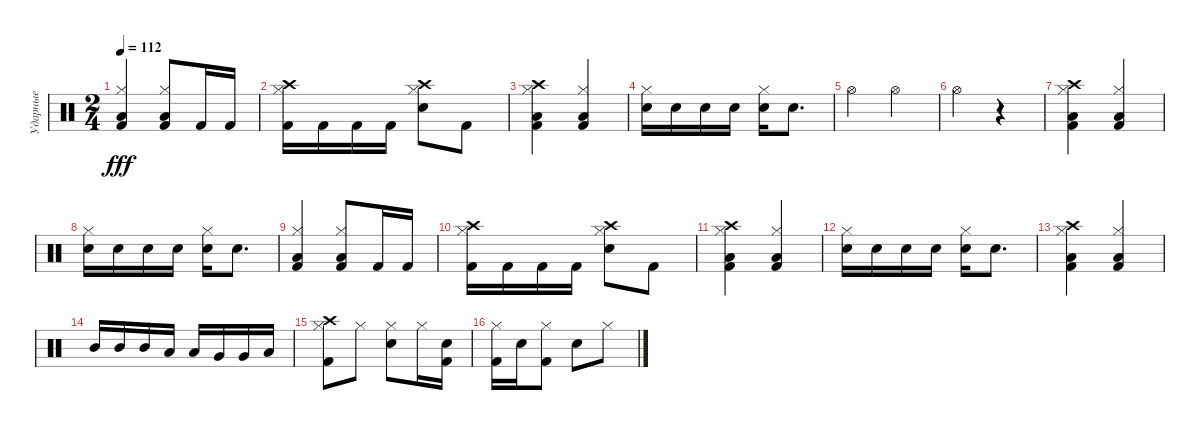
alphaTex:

\track ("Ударные" "Ударные") {instrument percussion}
\staff {score}
\articulation defaults
\ts (2 4)
\tempo 112
\clef neutral
\ks c
("Low Floor Tom (hit)" "Hi-Hat (closed)" "Kick (hit) 2").4{dy fff} ("Low Floor Tom (hit)" "Kick (hit) 2" "Hi-Hat (closed)").8 "Kick (hit) 2".16 "Kick (hit) 2".16 |
("Hi-Hat (closed)" "Crash high (hit)" "Kick (hit) 2").16 "Kick (hit) 2".16 "Kick (hit) 2".16 "Kick (hit) 2".16 ("Electric Snare (hit)" "Hi-Hat (closed)" "Crash high (hit)").8 "Kick (hit) 2".8 |
("Kick (hit) 2" "Hi-Hat (closed)" "Crash high (hit)" "Low Floor Tom (hit)").4 ("Kick (hit) 2" "Low Floor Tom (hit)" "Hi-Hat (closed)").4 |
("Hi-Hat (closed)" "Electric Snare (hit)").16 "Electric Snare (hit)".16 "Electric Snare (hit)".16 "Electric Snare (hit)".16 ("Hi-Hat (closed)" "Electric Snare (hit)").16 "Electric Snare (hit)".8{d} |
"Hi-Hat (open)".4 "Hi-Hat (open)".4 |
"Hi-Hat (open)".4 r.4 |
("Crash high (hit)" "Low Floor Tom (hit)" "Kick (hit) 2" "Hi-Hat (closed)").4 ("Kick (hit) 2" "Low Floor Tom (hit)" "Hi-Hat (closed)").4 |
("Electric Snare (hit)" "Hi-Hat (closed)").16 "Electric Snare (hit)".16 "Electric Snare (hit)".16 "Electric Snare (hit)".16 ("Electric Snare (hit)" "Hi-Hat (closed)").16 "Electric Snare (hit)".8{d} |
("Low Floor Tom (hit)" "Hi-Hat (closed)" "Kick (hit) 2").4 ("Low Floor Tom (hit)" "Kick (hit) 2" "Hi-Hat (closed)").8 "Kick (hit) 2".16 "Kick (hit) 2".16 |
("Hi-Hat (closed)" "Crash high (hit)" "Kick (hit) 2").16 "Kick (hit) 2".16 "Kick (hit) 2".16 "Kick (hit) 2".16 ("Electric Snare (hit)" "Hi-Hat (closed)" "Crash high (hit)").8 "Kick (hit) 2".8 |
("Hi-Hat (closed)" "Low Floor Tom (hit)" "Kick (hit) 2" "Crash high (hit)").4 ("Kick (hit) 2" "Low Floor Tom (hit)" "Hi-Hat (closed)").4 |
("Electric Snare (hit)" "Hi-Hat (closed)").16 "Electric Snare (hit)".16 "Electric Snare (hit)".16 "Electric Snare (hit)".16 ("Hi-Hat (closed)" "Electric Snare (hit)").16 "Electric Snare (hit)".8{d} |
("Low Floor Tom (hit)" "Crash high (hit)" "Hi-Hat (closed)" "Kick (hit) 2").4 ("Kick (hit) 2" "Low Floor Tom (hit)" "Hi-Hat (closed)").4 |
"Mid Tom (hit)".16 "Mid Tom (hit)".16 "Mid Tom (hit)".16 "Low Tom (hit)".16 "Low Tom (hit)".16 "Very Low Tom (hit)".16 "Very Low Tom (hit)".16 "Low Floor Tom (hit)".16 |
("Kick (hit) 2" "Crash high (hit)" "Hi-Hat (closed)").8 "Hi-Hat (closed)".8 ("Electric Snare (hit)" "Hi-Hat (closed)").8 "Hi-Hat (closed)".16 ("Electric Snare (hit)" "Kick (hit) 2").16 |
("Kick (hit) 2" "Hi-Hat (closed)").16 "Electric Snare (hit)".16 ("Kick (hit) 2" "Hi-Hat (closed)").8 "Electric Snare (hit)".8 "Hi-Hat (closed)".8
